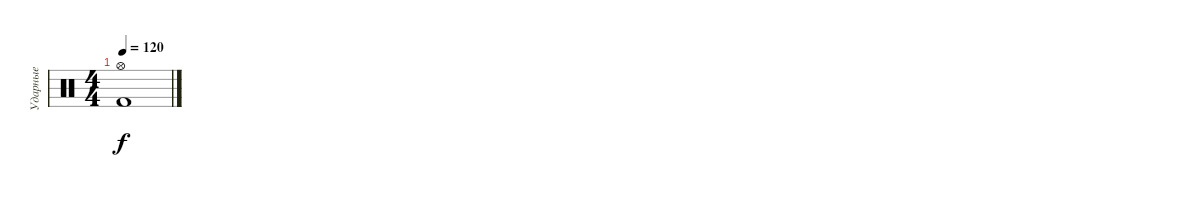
\track ("Ударные" "Ударные") {instrument percussion}
\staff {score}
\articulation defaults
\ts (4 4)
\tempo 120
\clef neutral
\ks aminor
("Hi-Hat (open)" "Kick (hit) 2").1{dy f}
